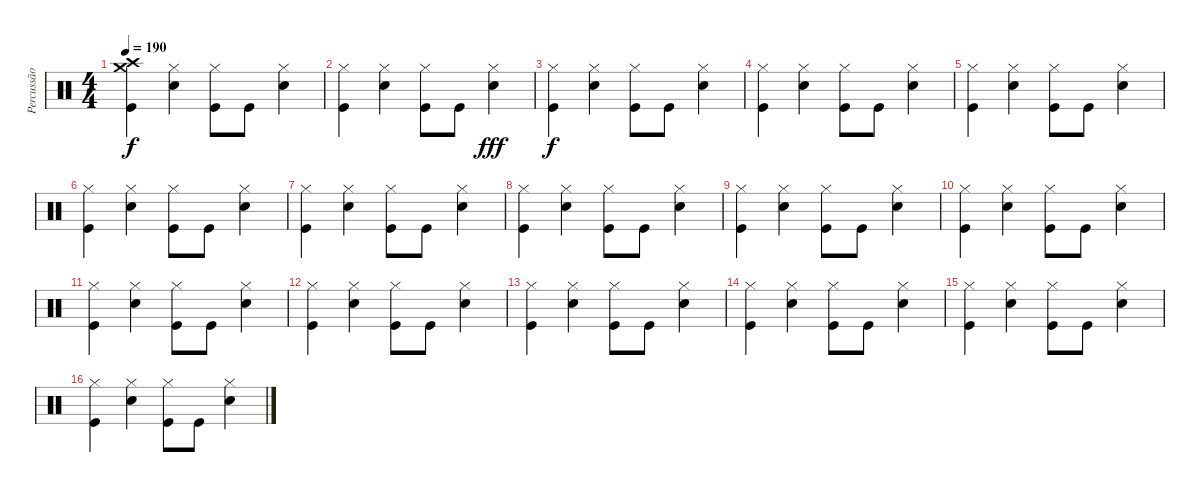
\track ("Percussão" "Percussão") {instrument percussion}
\staff {score}
\articulation defaults
\ts (4 4)
\tempo 190
\clef neutral
\ks c
("Crash high (hit)" "Crash medium (hit)" "Kick (hit)").4{dy f} ("Hi-Hat (closed)" "Snare (hit) 2").4 ("Hi-Hat (closed)" "Kick (hit)").8 "Kick (hit)".8 ("Hi-Hat (closed)" "Snare (hit) 2").4 |
("Hi-Hat (closed)" "Kick (hit)").4 ("Hi-Hat (closed)" "Snare (hit) 2").4 ("Hi-Hat (closed)" "Kick (hit)").8 "Kick (hit)".8 ("Hi-Hat (closed)" "Snare (hit) 2").4{dy fff} |
("Hi-Hat (closed)" "Kick (hit)").4{dy f} ("Hi-Hat (closed)" "Snare (hit) 2").4 ("Hi-Hat (closed)" "Kick (hit)").8 "Kick (hit)".8 ("Hi-Hat (closed)" "Snare (hit) 2").4 |
("Hi-Hat (closed)" "Kick (hit)").4 ("Hi-Hat (closed)" "Snare (hit) 2").4 ("Hi-Hat (closed)" "Kick (hit)").8 "Kick (hit)".8 ("Hi-Hat (closed)" "Snare (hit) 2").4 |
("Hi-Hat (closed)" "Kick (hit)").4 ("Hi-Hat (closed)" "Snare (hit) 2").4 ("Hi-Hat (closed)" "Kick (hit)").8 "Kick (hit)".8 ("Hi-Hat (closed)" "Snare (hit) 2").4 |
("Hi-Hat (closed)" "Kick (hit)").4 ("Hi-Hat (closed)" "Snare (hit) 2").4 ("Hi-Hat (closed)" "Kick (hit)").8 "Kick (hit)".8 ("Hi-Hat (closed)" "Snare (hit) 2").4 |
("Hi-Hat (closed)" "Kick (hit)").4 ("Hi-Hat (closed)" "Snare (hit) 2").4 ("Hi-Hat (closed)" "Kick (hit)").8 "Kick (hit)".8 ("Hi-Hat (closed)" "Snare (hit) 2").4 |
("Hi-Hat (closed)" "Kick (hit)").4 ("Hi-Hat (closed)" "Snare (hit) 2").4 ("Hi-Hat (closed)" "Kick (hit)").8 "Kick (hit)".8 ("Hi-Hat (closed)" "Snare (hit) 2").4 |
("Hi-Hat (closed)" "Kick (hit)").4 ("Hi-Hat (closed)" "Snare (hit) 2").4 ("Hi-Hat (closed)" "Kick (hit)").8 "Kick (hit)".8 ("Hi-Hat (closed)" "Snare (hit) 2").4 |
("Hi-Hat (closed)" "Kick (hit)").4 ("Hi-Hat (closed)" "Snare (hit) 2").4 ("Hi-Hat (closed)" "Kick (hit)").8 "Kick (hit)".8 ("Hi-Hat (closed)" "Snare (hit) 2").4 |
("Hi-Hat (closed)" "Kick (hit)").4 ("Hi-Hat (closed)" "Snare (hit) 2").4 ("Hi-Hat (closed)" "Kick (hit)").8 "Kick (hit)".8 ("Hi-Hat (closed)" "Snare (hit) 2").4 |
("Hi-Hat (closed)" "Kick (hit)").4 ("Hi-Hat (closed)" "Snare (hit) 2").4 ("Hi-Hat (closed)" "Kick (hit)").8 "Kick (hit)".8 ("Hi-Hat (closed)" "Snare (hit) 2").4 |
("Hi-Hat (closed)" "Kick (hit)").4 ("Hi-Hat (closed)" "Snare (hit) 2").4 ("Hi-Hat (closed)" "Kick (hit)").8 "Kick (hit)".8 ("Hi-Hat (closed)" "Snare (hit) 2").4 |
("Hi-Hat (closed)" "Kick (hit)").4 ("Hi-Hat (closed)" "Snare (hit) 2").4 ("Hi-Hat (closed)" "Kick (hit)").8 "Kick (hit)".8 ("Hi-Hat (closed)" "Snare (hit) 2").4 |
("Hi-Hat (closed)" "Kick (hit)").4 ("Hi-Hat (closed)" "Snare (hit) 2").4 ("Hi-Hat (closed)" "Kick (hit)").8 "Kick (hit)".8 ("Hi-Hat (closed)" "Snare (hit) 2").4 |
("Hi-Hat (closed)" "Kick (hit)").4 ("Hi-Hat (closed)" "Snare (hit) 2").4 ("Hi-Hat (closed)" "Kick (hit)").8 "Kick (hit)".8 ("Hi-Hat (closed)" "Snare (hit) 2").4
